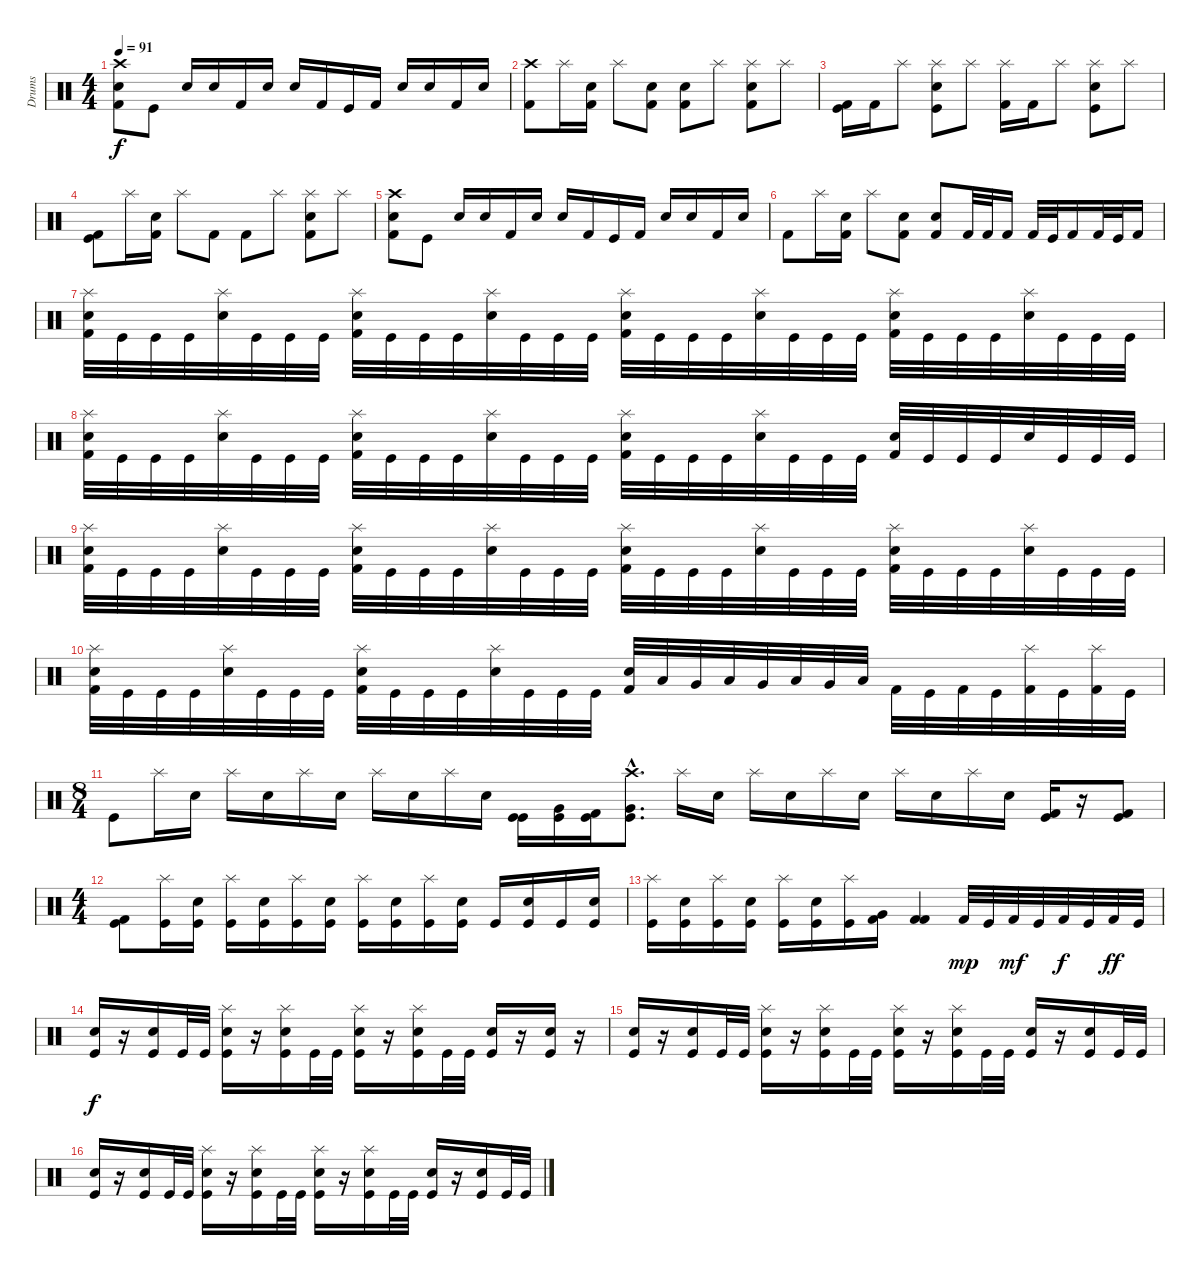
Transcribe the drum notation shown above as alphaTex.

\track ("Drums" "Drums") {instrument percussion}
\staff {score}
\articulation defaults
\ts (4 4)
\tempo 91
\clef neutral
\ks c
("Crash high (hit)" "Kick (hit) 2" "Snare (hit) 2").8{dy f} "Kick (hit)".8 "Snare (hit) 2".16 "Electric Snare (hit)".16 "Kick (hit) 2".16 "Snare (hit) 2".16 "Electric Snare (hit)".16 "Kick (hit) 2".16 "Kick (hit)".16 "Kick (hit) 2".16 "Snare (hit) 2".16 "Electric Snare (hit)".16 "Kick (hit) 2".16 "Snare (hit) 2".16 |
("Kick (hit) 2" "Crash high (hit)").8 "Splash (hit)".16 ("Kick (hit) 2" "Snare (hit) 2").16 "Splash (hit)".8 ("Kick (hit) 2" "Electric Snare (hit)").8 ("Kick (hit) 2" "Snare (hit) 2").8 "Splash (hit)".8 ("Splash (hit)" "Kick (hit) 2" "Electric Snare (hit)").8 "Splash (hit)".8 |
("Kick (hit)" "Kick (hit) 2").16 "Kick (hit) 2".16 "Splash (hit)".8 ("Splash (hit)" "Electric Snare (hit)" "Kick (hit)").8 "Splash (hit)".8 ("Splash (hit)" "Kick (hit) 2").16 "Kick (hit) 2".16 "Splash (hit)".8 ("Splash (hit)" "Electric Snare (hit)" "Kick (hit)").8 "Splash (hit)".8 |
("Kick (hit) 2" "Kick (hit)").8 "Splash (hit)".16 ("Kick (hit) 2" "Snare (hit) 2").16 "Splash (hit)".8 "Kick (hit) 2".8 "Kick (hit) 2".8 "Splash (hit)".8 ("Splash (hit)" "Kick (hit) 2" "Snare (hit) 2").8 "Splash (hit)".8 |
("Crash high (hit)" "Kick (hit) 2" "Snare (hit) 2").8 "Kick (hit)".8 "Snare (hit) 2".16 "Electric Snare (hit)".16 "Kick (hit) 2".16 "Snare (hit) 2".16 "Electric Snare (hit)".16 "Kick (hit) 2".16 "Kick (hit)".16 "Kick (hit) 2".16 "Snare (hit) 2".16 "Electric Snare (hit)".16 "Kick (hit) 2".16 "Snare (hit) 2".16 |
"Kick (hit) 2".8 "Splash (hit)".16 ("Kick (hit) 2" "Snare (hit) 2").16 "Splash (hit)".8 ("Kick (hit) 2" "Electric Snare (hit)").8 ("Kick (hit) 2" "Snare (hit) 2").8 "Kick (hit) 2".32 "Kick (hit) 2".32 "Kick (hit) 2".16 "Kick (hit) 2".32 "Kick (hit)".32 "Kick (hit) 2".16 "Kick (hit) 2".32 "Kick (hit)".32 "Kick (hit) 2".16 |
("Splash (hit)" "Snare (hit) 2" "Kick (hit) 2").32 "Kick (hit)".32 "Kick (hit)".32 "Kick (hit)".32 ("Splash (hit)" "Snare (hit) 2").32 "Kick (hit)".32 "Kick (hit)".32 "Kick (hit)".32 ("Splash (hit)" "Snare (hit) 2" "Kick (hit) 2").32 "Kick (hit)".32 "Kick (hit)".32 "Kick (hit)".32 ("Splash (hit)" "Snare (hit) 2").32 "Kick (hit)".32 "Kick (hit)".32 "Kick (hit)".32 ("Splash (hit)" "Snare (hit) 2" "Kick (hit) 2").32 "Kick (hit)".32 "Kick (hit)".32 "Kick (hit)".32 ("Splash (hit)" "Snare (hit) 2").32 "Kick (hit)".32 "Kick (hit)".32 "Kick (hit)".32 ("Splash (hit)" "Snare (hit) 2" "Kick (hit) 2").32 "Kick (hit)".32 "Kick (hit)".32 "Kick (hit)".32 ("Splash (hit)" "Snare (hit) 2").32 "Kick (hit)".32 "Kick (hit)".32 "Kick (hit)".32 |
("Splash (hit)" "Snare (hit) 2" "Kick (hit) 2").32 "Kick (hit)".32 "Kick (hit)".32 "Kick (hit)".32 ("Splash (hit)" "Snare (hit) 2").32 "Kick (hit)".32 "Kick (hit)".32 "Kick (hit)".32 ("Splash (hit)" "Snare (hit) 2" "Kick (hit) 2").32 "Kick (hit)".32 "Kick (hit)".32 "Kick (hit)".32 ("Splash (hit)" "Snare (hit) 2").32 "Kick (hit)".32 "Kick (hit)".32 "Kick (hit)".32 ("Splash (hit)" "Snare (hit) 2" "Kick (hit) 2").32 "Kick (hit)".32 "Kick (hit)".32 "Kick (hit)".32 ("Splash (hit)" "Snare (hit) 2").32 "Kick (hit)".32 "Kick (hit)".32 "Kick (hit)".32 ("Snare (hit) 2" "Kick (hit) 2").32 "Kick (hit)".32 "Kick (hit)".32 "Kick (hit)".32 "Snare (hit) 2".32 "Kick (hit)".32 "Kick (hit)".32 "Kick (hit)".32 |
("Splash (hit)" "Snare (hit) 2" "Kick (hit) 2").32 "Kick (hit)".32 "Kick (hit)".32 "Kick (hit)".32 ("Splash (hit)" "Snare (hit) 2").32 "Kick (hit)".32 "Kick (hit)".32 "Kick (hit)".32 ("Splash (hit)" "Snare (hit) 2" "Kick (hit) 2").32 "Kick (hit)".32 "Kick (hit)".32 "Kick (hit)".32 ("Splash (hit)" "Snare (hit) 2").32 "Kick (hit)".32 "Kick (hit)".32 "Kick (hit)".32 ("Splash (hit)" "Snare (hit) 2" "Kick (hit) 2").32 "Kick (hit)".32 "Kick (hit)".32 "Kick (hit)".32 ("Splash (hit)" "Snare (hit) 2").32 "Kick (hit)".32 "Kick (hit)".32 "Kick (hit)".32 ("Splash (hit)" "Snare (hit) 2" "Kick (hit) 2").32 "Kick (hit)".32 "Kick (hit)".32 "Kick (hit)".32 ("Splash (hit)" "Snare (hit) 2").32 "Kick (hit)".32 "Kick (hit)".32 "Kick (hit)".32 |
("Splash (hit)" "Snare (hit) 2" "Kick (hit) 2").32 "Kick (hit)".32 "Kick (hit)".32 "Kick (hit)".32 ("Splash (hit)" "Snare (hit) 2").32 "Kick (hit)".32 "Kick (hit)".32 "Kick (hit)".32 ("Splash (hit)" "Snare (hit) 2" "Kick (hit) 2").32 "Kick (hit)".32 "Kick (hit)".32 "Kick (hit)".32 ("Splash (hit)" "Snare (hit) 2").32 "Kick (hit)".32 "Kick (hit)".32 "Kick (hit)".32 ("Snare (hit) 2" "Kick (hit) 2").32 "Low Tom (hit)".32 "Very Low Tom (hit)".32 "Low Tom (hit)".32 "Very Low Tom (hit)".32 "Low Tom (hit)".32 "Very Low Tom (hit)".32 "Low Tom (hit)".32 "Kick (hit) 2".32 "Kick (hit)".32 "Kick (hit) 2".32 "Kick (hit)".32 ("Splash (hit)" "Kick (hit) 2").32 "Kick (hit)".32 ("Splash (hit)" "Kick (hit) 2").32 "Kick (hit)".32 |
\ts (8 4)
"Kick (hit)".8 "Splash (hit)".16 "Snare (hit) 2".16 "Splash (hit)".16 "Snare (hit) 2".16 "Splash (hit)".16 "Snare (hit) 2".16 "Splash (hit)".16 "Snare (hit) 2".16 "Splash (hit)".16 "Snare (hit) 2".16 ("Kick (hit)" "Kick (hit)").16 ("Kick (hit)" "Very Low Tom (hit)").16 ("Kick (hit)" "Kick (hit) 2").16 ("Kick (hit)"{hac} "Very Low Tom (hit)"{hac} "Crash high (hit)"{hac}).8{d} "Splash (hit)".16 "Snare (hit) 2".16 "Splash (hit)".16 "Snare (hit) 2".16 "Splash (hit)".16 "Snare (hit) 2".16 "Splash (hit)".16 "Snare (hit) 2".16 "Splash (hit)".16 "Snare (hit) 2".16 ("Kick (hit) 2" "Kick (hit)").16 r.16 ("Kick (hit) 2" "Kick (hit)").8 |
\ts (4 4)
("Kick (hit) 2" "Kick (hit)").8 ("Kick (hit)" "Splash (hit)").16 ("Kick (hit)" "Snare (hit) 2").16 ("Kick (hit)" "Splash (hit)").16 ("Kick (hit)" "Snare (hit) 2").16 ("Kick (hit)" "Splash (hit)").16 ("Kick (hit)" "Snare (hit) 2").16 ("Kick (hit)" "Splash (hit)").16 ("Kick (hit)" "Snare (hit) 2").16 ("Kick (hit)" "Splash (hit)").16 ("Kick (hit)" "Snare (hit) 2").16 "Kick (hit)".16 ("Kick (hit)" "Snare (hit) 2").16 "Kick (hit)".16 ("Kick (hit)" "Snare (hit) 2").16 |
("Kick (hit)" "Splash (hit)").16 ("Kick (hit)" "Snare (hit) 2").16 ("Kick (hit)" "Splash (hit)").16 ("Kick (hit)" "Snare (hit) 2").16 ("Kick (hit)" "Splash (hit)").16 ("Kick (hit)" "Snare (hit) 2").16 ("Kick (hit)" "Splash (hit)").16 ("Very Low Tom (hit)" "Kick (hit) 2").16 ("Kick (hit) 2" "Kick (hit) 2").4 "Kick (hit) 2".32{dy mp} "Kick (hit)".32 "Kick (hit) 2".32{dy mf} "Kick (hit)".32 "Kick (hit) 2".32{dy f} "Kick (hit)".32 "Kick (hit) 2".32{dy ff} "Kick (hit)".32 |
("Snare (hit) 2" "Kick (hit)").16{dy f} r.16 ("Snare (hit) 2" "Kick (hit)").16 "Kick (hit)".32 "Kick (hit)".32 ("Splash (hit)" "Snare (hit) 2" "Kick (hit)").16 r.16 ("Splash (hit)" "Snare (hit) 2" "Kick (hit)").16 "Kick (hit)".32 "Kick (hit)".32 ("Splash (hit)" "Snare (hit) 2" "Kick (hit)").16 r.16 ("Splash (hit)" "Snare (hit) 2" "Kick (hit)").16 "Kick (hit)".32 "Kick (hit)".32 ("Snare (hit) 2" "Kick (hit)").16 r.16 ("Snare (hit) 2" "Kick (hit)").16 r.16 |
("Snare (hit) 2" "Kick (hit)").16 r.16 ("Snare (hit) 2" "Kick (hit)").16 "Kick (hit)".32 "Kick (hit)".32 ("Splash (hit)" "Snare (hit) 2" "Kick (hit)").16 r.16 ("Splash (hit)" "Snare (hit) 2" "Kick (hit)").16 "Kick (hit)".32 "Kick (hit)".32 ("Splash (hit)" "Snare (hit) 2" "Kick (hit)").16 r.16 ("Splash (hit)" "Snare (hit) 2" "Kick (hit)").16 "Kick (hit)".32 "Kick (hit)".32 ("Snare (hit) 2" "Kick (hit)").16 r.16 ("Snare (hit) 2" "Kick (hit)").16 "Kick (hit)".32 "Kick (hit)".32 |
("Snare (hit) 2" "Kick (hit)").16 r.16 ("Snare (hit) 2" "Kick (hit)").16 "Kick (hit)".32 "Kick (hit)".32 ("Splash (hit)" "Snare (hit) 2" "Kick (hit)").16 r.16 ("Splash (hit)" "Snare (hit) 2" "Kick (hit)").16 "Kick (hit)".32 "Kick (hit)".32 ("Splash (hit)" "Snare (hit) 2" "Kick (hit)").16 r.16 ("Splash (hit)" "Snare (hit) 2" "Kick (hit)").16 "Kick (hit)".32 "Kick (hit)".32 ("Snare (hit) 2" "Kick (hit)").16 r.16 ("Snare (hit) 2" "Kick (hit)").16 "Kick (hit)".32 "Kick (hit)".32
